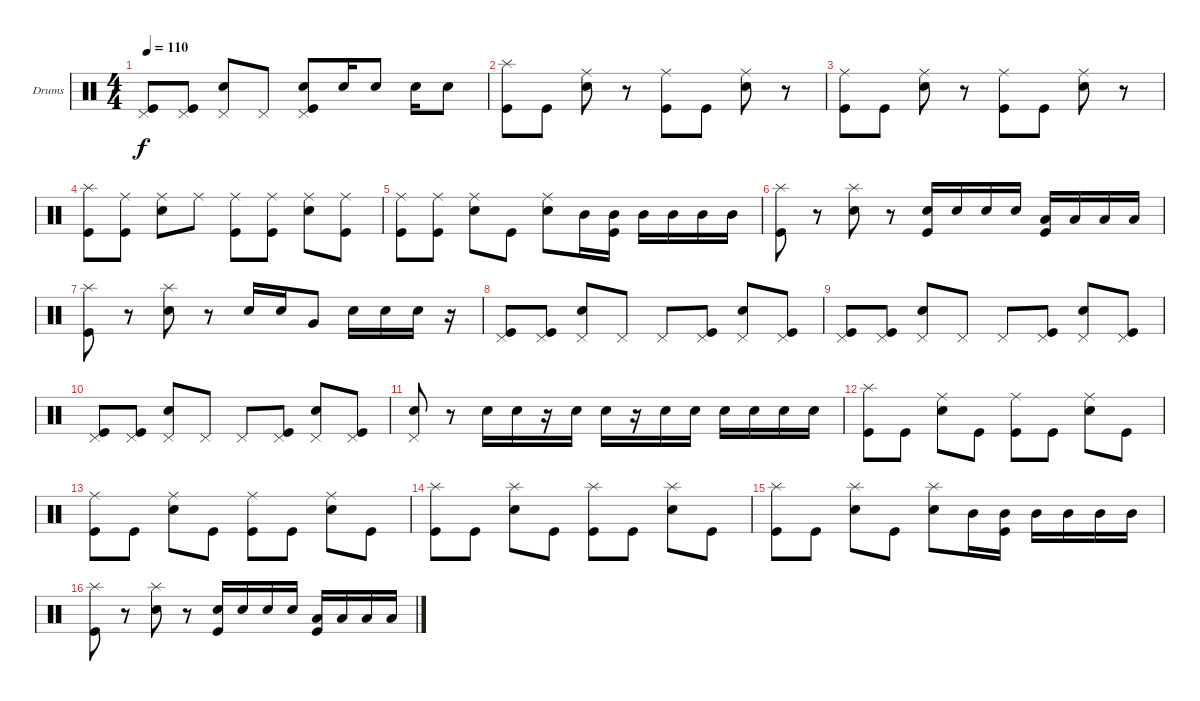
\defaultSystemsLayout 4
\bracketExtendMode groupsimilarinstruments
\firstSystemTrackNameOrientation horizontal
\otherSystemsTrackNameOrientation horizontal
\track ("Drumkit" "Drums") {instrument percussion}
\staff {score}
\articulation defaults
\ts (4 4)
\tempo 110
\clef neutral
\ks c
("Pedal Hi-Hat (hit)" "Kick (hit)").8{dy f} ("Pedal Hi-Hat (hit)" "Kick (hit)").8 ("Pedal Hi-Hat (hit)" "Snare (hit) 2").8 "Pedal Hi-Hat (hit)".8 ("Pedal Hi-Hat (hit)" "Kick (hit)" "Snare (hit) 2").8 "Snare (hit) 2".16 "Snare (hit) 2".8 "Snare (hit) 2".16 "Snare (hit) 2".8 |
("Splash (hit)" "Kick (hit)").8 "Kick (hit)".8 ("Snare (hit) 2" "Ride (middle)").8 r.8 ("Kick (hit)" "Ride (middle)").8 "Kick (hit)".8 ("Snare (hit) 2" "Ride (middle)").8 r.8 |
("Kick (hit)" "Ride (middle)").8 "Kick (hit)".8 ("Snare (hit) 2" "Ride (middle)").8 r.8 ("Kick (hit)" "Ride (middle)").8 "Kick (hit)".8 ("Snare (hit) 2" "Ride (middle)").8 r.8 |
("Splash (hit)" "Kick (hit)").8 ("Ride (middle)" "Kick (hit)").8 ("Ride (middle)" "Snare (hit) 2").8 "Ride (middle)".8 ("Ride (middle)" "Kick (hit)").8 ("Ride (middle)" "Kick (hit)").8 ("Ride (middle)" "Snare (hit) 2").8 ("Ride (middle)" "Kick (hit)").8 |
("Ride (middle)" "Kick (hit)").8 ("Ride (middle)" "Kick (hit)").8 ("Ride (middle)" "Snare (hit) 2").8 "Kick (hit)".8 ("Ride (middle)" "Snare (hit) 2").8 "Mid Tom (hit)".16 ("Mid Tom (hit)" "Kick (hit)").16 "Mid Tom (hit)".16 "Mid Tom (hit)".16 "Mid Tom (hit)".16 "Mid Tom (hit)".16 |
("Splash (hit)" "Kick (hit)").8 r.8 ("Splash (hit)" "Snare (hit) 2").8 r.8 ("Kick (hit)" "Snare (hit) 2").16 "Snare (hit) 2".16 "Snare (hit) 2".16 "Snare (hit) 2".16 ("Kick (hit)" "Low Tom (hit)").16 "Low Tom (hit)".16 "Low Tom (hit)".16 "Low Tom (hit)".16 |
("Splash (hit)" "Kick (hit)").8 r.8 ("Splash (hit)" "Snare (hit) 2").8 r.8 "Snare (hit) 2".16 "Snare (hit) 2".16 "Very Low Tom (hit)".8 "Snare (hit) 2".16 "Snare (hit) 2".16 "Snare (hit) 2".16 r.16 |
("Pedal Hi-Hat (hit)" "Kick (hit)").8 ("Pedal Hi-Hat (hit)" "Kick (hit)").8 ("Pedal Hi-Hat (hit)" "Snare (hit) 2").8 "Pedal Hi-Hat (hit)".8 "Pedal Hi-Hat (hit)".8 ("Pedal Hi-Hat (hit)" "Kick (hit)").8 ("Pedal Hi-Hat (hit)" "Snare (hit) 2").8 ("Pedal Hi-Hat (hit)" "Kick (hit)").8 |
("Pedal Hi-Hat (hit)" "Kick (hit)").8 ("Pedal Hi-Hat (hit)" "Kick (hit)").8 ("Pedal Hi-Hat (hit)" "Snare (hit) 2").8 "Pedal Hi-Hat (hit)".8 "Pedal Hi-Hat (hit)".8 ("Pedal Hi-Hat (hit)" "Kick (hit)").8 ("Pedal Hi-Hat (hit)" "Snare (hit) 2").8 ("Pedal Hi-Hat (hit)" "Kick (hit)").8 |
("Pedal Hi-Hat (hit)" "Kick (hit)").8 ("Pedal Hi-Hat (hit)" "Kick (hit)").8 ("Pedal Hi-Hat (hit)" "Snare (hit) 2").8 "Pedal Hi-Hat (hit)".8 "Pedal Hi-Hat (hit)".8 ("Pedal Hi-Hat (hit)" "Kick (hit)").8 ("Pedal Hi-Hat (hit)" "Snare (hit) 2").8 ("Pedal Hi-Hat (hit)" "Kick (hit)").8 |
("Pedal Hi-Hat (hit)" "Snare (hit) 2").8 r.8 "Snare (hit) 2".16 "Snare (hit) 2".16 r.16 "Snare (hit) 2".16 "Snare (hit) 2".16 r.16 "Snare (hit) 2".16 "Snare (hit) 2".16 "Snare (hit) 2".16 "Snare (hit) 2".16 "Snare (hit) 2".16 "Snare (hit) 2".16 |
("Kick (hit)" "Splash (hit)").8 "Kick (hit)".8 ("Ride (middle)" "Snare (hit) 2").8 "Kick (hit)".8 ("Kick (hit)" "Ride (middle)").8 "Kick (hit)".8 ("Ride (middle)" "Snare (hit) 2").8 "Kick (hit)".8 |
("Kick (hit)" "Ride (middle)").8 "Kick (hit)".8 ("Ride (middle)" "Snare (hit) 2").8 "Kick (hit)".8 ("Kick (hit)" "Ride (middle)").8 "Kick (hit)".8 ("Ride (middle)" "Snare (hit) 2").8 "Kick (hit)".8 |
("Kick (hit)" "Splash (hit)").8 "Kick (hit)".8 ("Snare (hit) 2" "Splash (hit)").8 "Kick (hit)".8 ("Kick (hit)" "Splash (hit)").8 "Kick (hit)".8 ("Snare (hit) 2" "Splash (hit)").8 "Kick (hit)".8 |
("Kick (hit)" "Splash (hit)").8 "Kick (hit)".8 ("Snare (hit) 2" "Splash (hit)").8 "Kick (hit)".8 ("Snare (hit) 2" "Splash (hit)").8 "Mid Tom (hit)".16 ("Mid Tom (hit)" "Kick (hit)").16 "Mid Tom (hit)".16 "Mid Tom (hit)".16 "Mid Tom (hit)".16 "Mid Tom (hit)".16 |
("Splash (hit)" "Kick (hit)").8 r.8 ("Splash (hit)" "Snare (hit) 2").8 r.8 ("Kick (hit)" "Snare (hit) 2").16 "Snare (hit) 2".16 "Snare (hit) 2".16 "Snare (hit) 2".16 ("Kick (hit)" "Low Tom (hit)").16 "Low Tom (hit)".16 "Low Tom (hit)".16 "Low Tom (hit)".16
